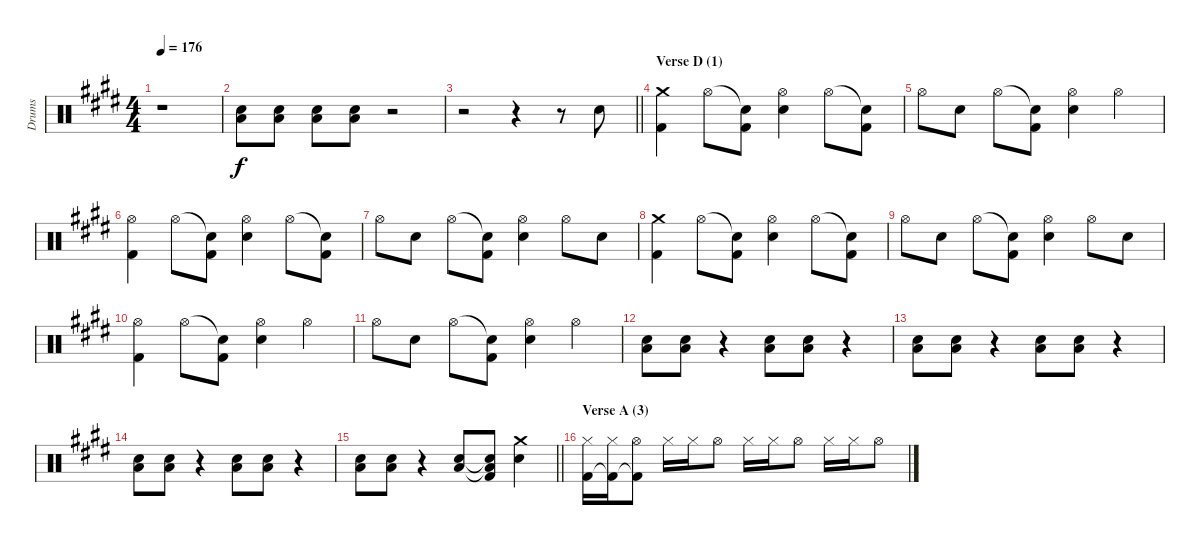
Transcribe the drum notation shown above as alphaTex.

\track ("Drums" "Drums") {instrument percussion}
\staff {score}
\articulation defaults
\ts (4 4)
\tempo 176
\clef neutral
\ks c#minor
r.1{dy f} |
("Electric Snare (hit)" "Low Floor Tom (hit)").8 ("Electric Snare (hit)" "Low Floor Tom (hit)").8 ("Electric Snare (hit)" "Low Floor Tom (hit)").8 ("Electric Snare (hit)" "Low Floor Tom (hit)").8 r.2 |
\barLineRight lightlight
r.2 r.4 r.8 "Electric Snare (hit)".8 |
\section ("" "Verse D (1)")
("Crash medium (hit)" "Kick (hit) 2").4 "Hi-Hat (open)".8 ("Snare (hit)"{t} "Kick (hit) 2").8 ("Hi-Hat (open)" "Electric Snare (hit)").4 "Hi-Hat (open)".8 ("Snare (hit)"{t} "Kick (hit) 2").8 |
"Hi-Hat (open)".8 "Electric Snare (hit)".8 "Hi-Hat (open)".8 ("Snare (hit)"{t} "Kick (hit) 2").8 ("Hi-Hat (open)" "Electric Snare (hit)").4 "Hi-Hat (open)".4 |
("Hi-Hat (open)" "Kick (hit) 2").4 "Hi-Hat (open)".8 ("Snare (hit)"{t} "Kick (hit) 2").8 ("Hi-Hat (open)" "Electric Snare (hit)").4 "Hi-Hat (open)".8 ("Snare (hit)"{t} "Kick (hit) 2").8 |
"Hi-Hat (open)".8 "Electric Snare (hit)".8 "Hi-Hat (open)".8 ("Snare (hit)"{t} "Kick (hit) 2").8 ("Hi-Hat (open)" "Electric Snare (hit)").4 "Hi-Hat (open)".8 "Electric Snare (hit)".8 |
("Crash medium (hit)" "Kick (hit) 2").4 "Hi-Hat (open)".8 ("Snare (hit)"{t} "Kick (hit) 2").8 ("Hi-Hat (open)" "Electric Snare (hit)").4 "Hi-Hat (open)".8 ("Snare (hit)"{t} "Kick (hit) 2").8 |
"Hi-Hat (open)".8 "Electric Snare (hit)".8 "Hi-Hat (open)".8 ("Snare (hit)"{t} "Kick (hit) 2").8 ("Hi-Hat (open)" "Electric Snare (hit)").4 "Hi-Hat (open)".8 "Electric Snare (hit)".8 |
("Hi-Hat (open)" "Kick (hit) 2").4 "Hi-Hat (open)".8 ("Snare (hit)"{t} "Kick (hit) 2").8 ("Hi-Hat (open)" "Electric Snare (hit)").4 "Hi-Hat (open)".4 |
"Hi-Hat (open)".8 "Electric Snare (hit)".8 "Hi-Hat (open)".8 ("Snare (hit)"{t} "Kick (hit) 2").8 ("Hi-Hat (open)" "Electric Snare (hit)").4 "Hi-Hat (open)".4 |
("Electric Snare (hit)" "Low Floor Tom (hit)").8 ("Electric Snare (hit)" "Low Floor Tom (hit)").8 r.4 ("Electric Snare (hit)" "Low Floor Tom (hit)").8 ("Electric Snare (hit)" "Low Floor Tom (hit)").8 r.4 |
("Electric Snare (hit)" "Low Floor Tom (hit)").8 ("Electric Snare (hit)" "Low Floor Tom (hit)").8 r.4 ("Electric Snare (hit)" "Low Floor Tom (hit)").8 ("Electric Snare (hit)" "Low Floor Tom (hit)").8 r.4 |
("Electric Snare (hit)" "Low Floor Tom (hit)").8 ("Electric Snare (hit)" "Low Floor Tom (hit)").8 r.4 ("Electric Snare (hit)" "Low Floor Tom (hit)").8 ("Electric Snare (hit)" "Low Floor Tom (hit)").8 r.4 |
\barLineRight lightlight
("Electric Snare (hit)" "Low Floor Tom (hit)").8 ("Electric Snare (hit)" "Low Floor Tom (hit)").8 r.4 ("Electric Snare (hit)" "Low Floor Tom (hit)").8 ("Electric Snare (hit)"{t} "Low Floor Tom (hit)"{t} "Kick (hit) 2").8 ("Crash medium (hit)" "Electric Snare (hit)").4 |
\section ("" "Verse A (3)")
("Hi-Hat (closed)" "Kick (hit) 2").16 ("Hi-Hat (closed)" "Kick (hit) 2"{t}).16 ("Hi-Hat (open)" "Kick (hit) 2"{t}).8 "Hi-Hat (closed)".16 "Hi-Hat (closed)".16 "Hi-Hat (open)".8 "Hi-Hat (closed)".16 "Hi-Hat (closed)".16 "Hi-Hat (open)".8 "Hi-Hat (closed)".16 "Hi-Hat (closed)".16 "Hi-Hat (open)".8
